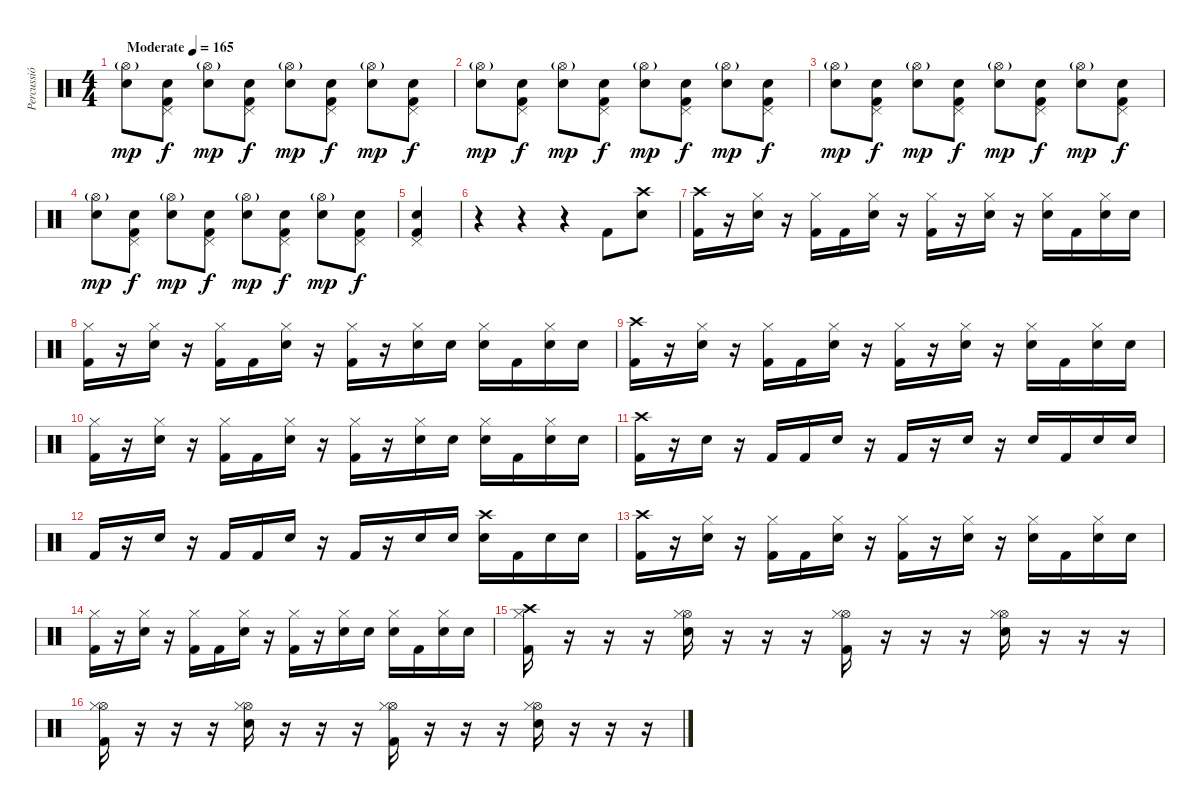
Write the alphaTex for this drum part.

\track ("Percussió" "Percussió") {instrument percussion}
\staff {score}
\articulation defaults
\ts (4 4)
\tempo (165 "Moderate")
\clef neutral
\ks c
("Hi-Hat (open)"{g} "Electric Snare (hit)").8{dy mp} ("Pedal Hi-Hat (hit)" "Electric Snare (hit)" "Kick (hit) 2").8{dy f} ("Hi-Hat (open)"{g} "Electric Snare (hit)").8{dy mp} ("Pedal Hi-Hat (hit)" "Electric Snare (hit)" "Kick (hit) 2").8{dy f} ("Hi-Hat (open)"{g} "Electric Snare (hit)").8{dy mp} ("Pedal Hi-Hat (hit)" "Electric Snare (hit)" "Kick (hit) 2").8{dy f} ("Hi-Hat (open)"{g} "Electric Snare (hit)").8{dy mp} ("Pedal Hi-Hat (hit)" "Electric Snare (hit)" "Kick (hit) 2").8{dy f} |
("Hi-Hat (open)"{g} "Electric Snare (hit)").8{dy mp} ("Pedal Hi-Hat (hit)" "Electric Snare (hit)" "Kick (hit) 2").8{dy f} ("Hi-Hat (open)"{g} "Electric Snare (hit)").8{dy mp} ("Pedal Hi-Hat (hit)" "Electric Snare (hit)" "Kick (hit) 2").8{dy f} ("Hi-Hat (open)"{g} "Electric Snare (hit)").8{dy mp} ("Pedal Hi-Hat (hit)" "Electric Snare (hit)" "Kick (hit) 2").8{dy f} ("Hi-Hat (open)"{g} "Electric Snare (hit)").8{dy mp} ("Pedal Hi-Hat (hit)" "Electric Snare (hit)" "Kick (hit) 2").8{dy f} |
("Hi-Hat (open)"{g} "Electric Snare (hit)").8{dy mp} ("Pedal Hi-Hat (hit)" "Electric Snare (hit)" "Kick (hit) 2").8{dy f} ("Hi-Hat (open)"{g} "Electric Snare (hit)").8{dy mp} ("Pedal Hi-Hat (hit)" "Electric Snare (hit)" "Kick (hit) 2").8{dy f} ("Hi-Hat (open)"{g} "Electric Snare (hit)").8{dy mp} ("Pedal Hi-Hat (hit)" "Electric Snare (hit)" "Kick (hit) 2").8{dy f} ("Hi-Hat (open)"{g} "Electric Snare (hit)").8{dy mp} ("Pedal Hi-Hat (hit)" "Electric Snare (hit)" "Kick (hit) 2").8{dy f} |
("Hi-Hat (open)"{g} "Electric Snare (hit)").8{dy mp} ("Pedal Hi-Hat (hit)" "Electric Snare (hit)" "Kick (hit) 2").8{dy f} ("Hi-Hat (open)"{g} "Electric Snare (hit)").8{dy mp} ("Pedal Hi-Hat (hit)" "Electric Snare (hit)" "Kick (hit) 2").8{dy f} ("Hi-Hat (open)"{g} "Electric Snare (hit)").8{dy mp} ("Pedal Hi-Hat (hit)" "Electric Snare (hit)" "Kick (hit) 2").8{dy f} ("Hi-Hat (open)"{g} "Electric Snare (hit)").8{dy mp} ("Pedal Hi-Hat (hit)" "Electric Snare (hit)" "Kick (hit) 2").8{dy f} |
("Pedal Hi-Hat (hit)" "Electric Snare (hit)" "Kick (hit) 2").4 |
r.4 r.4 r.4 "Kick (hit) 2".8 ("Crash high (hit)" "Electric Snare (hit)").8 |
("Crash high (hit)" "Kick (hit) 2").16 r.16 ("Hi-Hat (closed)" "Electric Snare (hit)").16 r.16 ("Hi-Hat (closed)" "Kick (hit) 2").16 "Kick (hit) 2".16 ("Hi-Hat (closed)" "Electric Snare (hit)").16 r.16 ("Hi-Hat (closed)" "Kick (hit) 2").16 r.16 ("Hi-Hat (closed)" "Electric Snare (hit)").16 r.16 ("Hi-Hat (closed)" "Electric Snare (hit)").16 "Kick (hit) 2".16 ("Hi-Hat (closed)" "Electric Snare (hit)").16 "Electric Snare (hit)".16 |
("Hi-Hat (closed)" "Kick (hit) 2").16 r.16 ("Hi-Hat (closed)" "Electric Snare (hit)").16 r.16 ("Hi-Hat (closed)" "Kick (hit) 2").16 "Kick (hit) 2".16 ("Hi-Hat (closed)" "Electric Snare (hit)").16 r.16 ("Hi-Hat (closed)" "Kick (hit) 2").16 r.16 ("Hi-Hat (closed)" "Electric Snare (hit)").16 "Electric Snare (hit)".16 ("Hi-Hat (closed)" "Electric Snare (hit)").16 "Kick (hit) 2".16 ("Hi-Hat (closed)" "Electric Snare (hit)").16 "Electric Snare (hit)".16 |
("Crash high (hit)" "Kick (hit) 2").16 r.16 ("Hi-Hat (closed)" "Electric Snare (hit)").16 r.16 ("Hi-Hat (closed)" "Kick (hit) 2").16 "Kick (hit) 2".16 ("Hi-Hat (closed)" "Electric Snare (hit)").16 r.16 ("Hi-Hat (closed)" "Kick (hit) 2").16 r.16 ("Hi-Hat (closed)" "Electric Snare (hit)").16 r.16 ("Hi-Hat (closed)" "Electric Snare (hit)").16 "Kick (hit) 2".16 ("Hi-Hat (closed)" "Electric Snare (hit)").16 "Electric Snare (hit)".16 |
("Hi-Hat (closed)" "Kick (hit) 2").16 r.16 ("Hi-Hat (closed)" "Electric Snare (hit)").16 r.16 ("Hi-Hat (closed)" "Kick (hit) 2").16 "Kick (hit) 2".16 ("Hi-Hat (closed)" "Electric Snare (hit)").16 r.16 ("Hi-Hat (closed)" "Kick (hit) 2").16 r.16 ("Hi-Hat (closed)" "Electric Snare (hit)").16 "Electric Snare (hit)".16 ("Hi-Hat (closed)" "Electric Snare (hit)").16 "Kick (hit) 2".16 ("Hi-Hat (closed)" "Electric Snare (hit)").16 "Electric Snare (hit)".16 |
("Crash high (hit)" "Kick (hit) 2").16 r.16 "Electric Snare (hit)".16 r.16 "Kick (hit) 2".16 "Kick (hit) 2".16 "Electric Snare (hit)".16 r.16 "Kick (hit) 2".16 r.16 "Electric Snare (hit)".16 r.16 "Electric Snare (hit)".16 "Kick (hit) 2".16 "Electric Snare (hit)".16 "Electric Snare (hit)".16 |
"Kick (hit) 2".16 r.16 "Electric Snare (hit)".16 r.16 "Kick (hit) 2".16 "Kick (hit) 2".16 "Electric Snare (hit)".16 r.16 "Kick (hit) 2".16 r.16 "Electric Snare (hit)".16 "Electric Snare (hit)".16 ("Crash high (hit)" "Electric Snare (hit)").16 "Kick (hit) 2".16 "Electric Snare (hit)".16 "Electric Snare (hit)".16 |
("Crash high (hit)" "Kick (hit) 2").16 r.16 ("Hi-Hat (closed)" "Electric Snare (hit)").16 r.16 ("Hi-Hat (closed)" "Kick (hit) 2").16 "Kick (hit) 2".16 ("Hi-Hat (closed)" "Electric Snare (hit)").16 r.16 ("Hi-Hat (closed)" "Kick (hit) 2").16 r.16 ("Hi-Hat (closed)" "Electric Snare (hit)").16 r.16 ("Hi-Hat (closed)" "Electric Snare (hit)").16 "Kick (hit) 2".16 ("Hi-Hat (closed)" "Electric Snare (hit)").16 "Electric Snare (hit)".16 |
("Hi-Hat (closed)" "Kick (hit) 2").16 r.16 ("Hi-Hat (closed)" "Electric Snare (hit)").16 r.16 ("Hi-Hat (closed)" "Kick (hit) 2").16 "Kick (hit) 2".16 ("Hi-Hat (closed)" "Electric Snare (hit)").16 r.16 ("Hi-Hat (closed)" "Kick (hit) 2").16 r.16 ("Hi-Hat (closed)" "Electric Snare (hit)").16 "Electric Snare (hit)".16 ("Hi-Hat (closed)" "Electric Snare (hit)").16 "Kick (hit) 2".16 ("Hi-Hat (closed)" "Electric Snare (hit)").16 "Electric Snare (hit)".16 |
("Crash high (hit)" "Hi-Hat (closed)" "Kick (hit) 2").16 r.16 r.16 r.16 ("Hi-Hat (open)" "Hi-Hat (closed)" "Electric Snare (hit)").16 r.16 r.16 r.16 ("Hi-Hat (open)" "Hi-Hat (closed)" "Kick (hit) 2").16 r.16 r.16 r.16 ("Hi-Hat (open)" "Hi-Hat (closed)" "Electric Snare (hit)").16 r.16 r.16 r.16 |
("Hi-Hat (open)" "Hi-Hat (closed)" "Kick (hit) 2").16 r.16 r.16 r.16 ("Hi-Hat (open)" "Hi-Hat (closed)" "Electric Snare (hit)").16 r.16 r.16 r.16 ("Hi-Hat (open)" "Hi-Hat (closed)" "Kick (hit) 2").16 r.16 r.16 r.16 ("Hi-Hat (open)" "Hi-Hat (closed)" "Electric Snare (hit)").16 r.16 r.16 r.16
